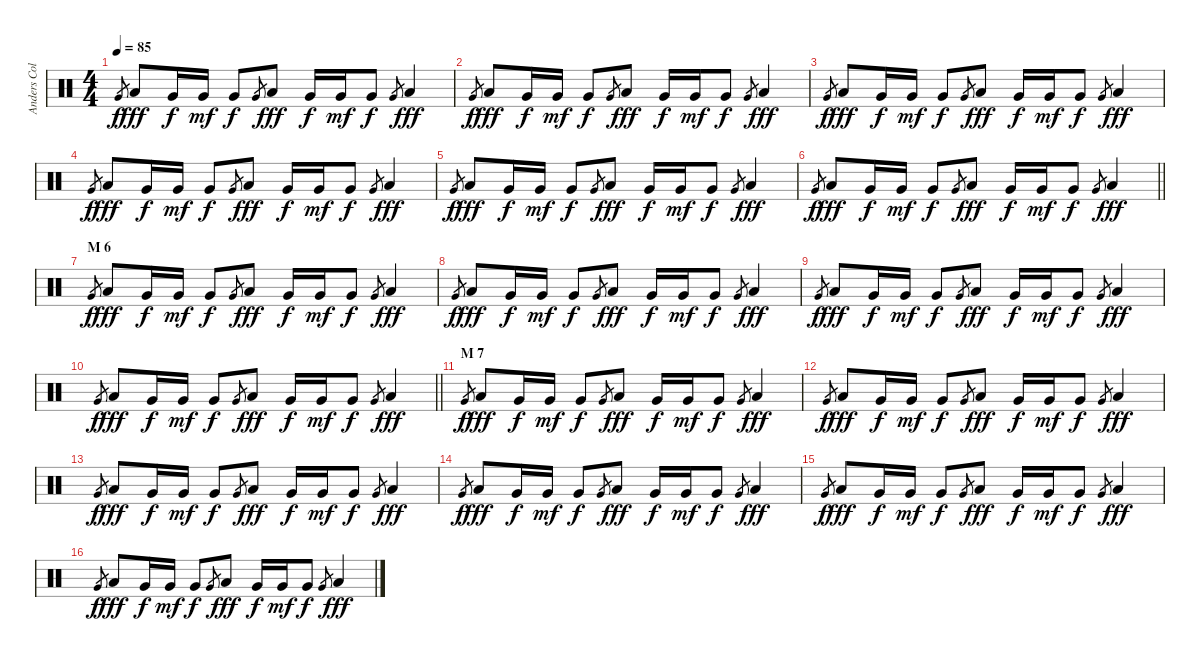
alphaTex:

\track ("Anders Colsefni" "Anders Col") {instrument percussion}
\staff {score}
\articulation defaults
\ts (4 4)
\tempo 85
\clef neutral
\ks c "Very Low Tom (hit)".8{gr dy f} "Low Tom (hit)".8{dy fff} "Very Low Tom (hit)".16{dy f} "Very Low Tom (hit)".16{dy mf} "Very Low Tom (hit)".8{dy f} "Very Low Tom (hit)".8{gr} "Low Tom (hit)".8{dy fff} "Very Low Tom (hit)".16{dy f} "Very Low Tom (hit)".16{dy mf} "Very Low Tom (hit)".8{dy f} "Very Low Tom (hit)".8{gr} "Low Tom (hit)".4{dy fff}
|
"Very Low Tom (hit)".8{gr dy f} "Low Tom (hit)".8{dy fff} "Very Low Tom (hit)".16{dy f} "Very Low Tom (hit)".16{dy mf} "Very Low Tom (hit)".8{dy f} "Very Low Tom (hit)".8{gr} "Low Tom (hit)".8{dy fff} "Very Low Tom (hit)".16{dy f} "Very Low Tom (hit)".16{dy mf} "Very Low Tom (hit)".8{dy f} "Very Low Tom (hit)".8{gr} "Low Tom (hit)".4{dy fff} |
"Very Low Tom (hit)".8{gr dy f} "Low Tom (hit)".8{dy fff} "Very Low Tom (hit)".16{dy f} "Very Low Tom (hit)".16{dy mf} "Very Low Tom (hit)".8{dy f} "Very Low Tom (hit)".8{gr} "Low Tom (hit)".8{dy fff} "Very Low Tom (hit)".16{dy f} "Very Low Tom (hit)".16{dy mf} "Very Low Tom (hit)".8{dy f} "Very Low Tom (hit)".8{gr} "Low Tom (hit)".4{dy fff} |
"Very Low Tom (hit)".8{gr dy f} "Low Tom (hit)".8{dy fff} "Very Low Tom (hit)".16{dy f} "Very Low Tom (hit)".16{dy mf} "Very Low Tom (hit)".8{dy f} "Very Low Tom (hit)".8{gr} "Low Tom (hit)".8{dy fff} "Very Low Tom (hit)".16{dy f} "Very Low Tom (hit)".16{dy mf} "Very Low Tom (hit)".8{dy f} "Very Low Tom (hit)".8{gr} "Low Tom (hit)".4{dy fff} |
"Very Low Tom (hit)".8{gr dy f} "Low Tom (hit)".8{dy fff} "Very Low Tom (hit)".16{dy f} "Very Low Tom (hit)".16{dy mf} "Very Low Tom (hit)".8{dy f} "Very Low Tom (hit)".8{gr} "Low Tom (hit)".8{dy fff} "Very Low Tom (hit)".16{dy f} "Very Low Tom (hit)".16{dy mf} "Very Low Tom (hit)".8{dy f} "Very Low Tom (hit)".8{gr} "Low Tom (hit)".4{dy fff} |
\barLineRight lightlight "Very Low Tom (hit)".8{gr dy f} "Low Tom (hit)".8{dy fff} "Very Low Tom (hit)".16{dy f} "Very Low Tom (hit)".16{dy mf} "Very Low Tom (hit)".8{dy f} "Very Low Tom (hit)".8{gr} "Low Tom (hit)".8{dy fff} "Very Low Tom (hit)".16{dy f} "Very Low Tom (hit)".16{dy mf} "Very Low Tom (hit)".8{dy f} "Very Low Tom (hit)".8{gr} "Low Tom (hit)".4{dy fff}
|
\section ("" "M 6")
"Very Low Tom (hit)".8{gr dy f} "Low Tom (hit)".8{dy fff} "Very Low Tom (hit)".16{dy f} "Very Low Tom (hit)".16{dy mf} "Very Low Tom (hit)".8{dy f} "Very Low Tom (hit)".8{gr} "Low Tom (hit)".8{dy fff} "Very Low Tom (hit)".16{dy f} "Very Low Tom (hit)".16{dy mf} "Very Low Tom (hit)".8{dy f} "Very Low Tom (hit)".8{gr} "Low Tom (hit)".4{dy fff} |
"Very Low Tom (hit)".8{gr dy f} "Low Tom (hit)".8{dy fff} "Very Low Tom (hit)".16{dy f} "Very Low Tom (hit)".16{dy mf} "Very Low Tom (hit)".8{dy f} "Very Low Tom (hit)".8{gr} "Low Tom (hit)".8{dy fff} "Very Low Tom (hit)".16{dy f} "Very Low Tom (hit)".16{dy mf} "Very Low Tom (hit)".8{dy f} "Very Low Tom (hit)".8{gr} "Low Tom (hit)".4{dy fff} |
"Very Low Tom (hit)".8{gr dy f} "Low Tom (hit)".8{dy fff} "Very Low Tom (hit)".16{dy f} "Very Low Tom (hit)".16{dy mf} "Very Low Tom (hit)".8{dy f} "Very Low Tom (hit)".8{gr} "Low Tom (hit)".8{dy fff} "Very Low Tom (hit)".16{dy f} "Very Low Tom (hit)".16{dy mf} "Very Low Tom (hit)".8{dy f} "Very Low Tom (hit)".8{gr} "Low Tom (hit)".4{dy fff} |
\barLineRight lightlight "Very Low Tom (hit)".8{gr dy f} "Low Tom (hit)".8{dy fff} "Very Low Tom (hit)".16{dy f} "Very Low Tom (hit)".16{dy mf} "Very Low Tom (hit)".8{dy f} "Very Low Tom (hit)".8{gr} "Low Tom (hit)".8{dy fff} "Very Low Tom (hit)".16{dy f} "Very Low Tom (hit)".16{dy mf} "Very Low Tom (hit)".8{dy f} "Very Low Tom (hit)".8{gr} "Low Tom (hit)".4{dy fff}
|
\section ("" "M 7")
"Very Low Tom (hit)".8{gr dy f} "Low Tom (hit)".8{dy fff} "Very Low Tom (hit)".16{dy f} "Very Low Tom (hit)".16{dy mf} "Very Low Tom (hit)".8{dy f} "Very Low Tom (hit)".8{gr} "Low Tom (hit)".8{dy fff} "Very Low Tom (hit)".16{dy f} "Very Low Tom (hit)".16{dy mf} "Very Low Tom (hit)".8{dy f} "Very Low Tom (hit)".8{gr} "Low Tom (hit)".4{dy fff} |
"Very Low Tom (hit)".8{gr dy f} "Low Tom (hit)".8{dy fff} "Very Low Tom (hit)".16{dy f} "Very Low Tom (hit)".16{dy mf} "Very Low Tom (hit)".8{dy f} "Very Low Tom (hit)".8{gr} "Low Tom (hit)".8{dy fff} "Very Low Tom (hit)".16{dy f} "Very Low Tom (hit)".16{dy mf} "Very Low Tom (hit)".8{dy f} "Very Low Tom (hit)".8{gr} "Low Tom (hit)".4{dy fff} |
"Very Low Tom (hit)".8{gr dy f} "Low Tom (hit)".8{dy fff} "Very Low Tom (hit)".16{dy f} "Very Low Tom (hit)".16{dy mf} "Very Low Tom (hit)".8{dy f} "Very Low Tom (hit)".8{gr} "Low Tom (hit)".8{dy fff} "Very Low Tom (hit)".16{dy f} "Very Low Tom (hit)".16{dy mf} "Very Low Tom (hit)".8{dy f} "Very Low Tom (hit)".8{gr} "Low Tom (hit)".4{dy fff} |
"Very Low Tom (hit)".8{gr dy f} "Low Tom (hit)".8{dy fff} "Very Low Tom (hit)".16{dy f} "Very Low Tom (hit)".16{dy mf} "Very Low Tom (hit)".8{dy f} "Very Low Tom (hit)".8{gr} "Low Tom (hit)".8{dy fff} "Very Low Tom (hit)".16{dy f} "Very Low Tom (hit)".16{dy mf} "Very Low Tom (hit)".8{dy f} "Very Low Tom (hit)".8{gr} "Low Tom (hit)".4{dy fff} |
"Very Low Tom (hit)".8{gr dy f} "Low Tom (hit)".8{dy fff} "Very Low Tom (hit)".16{dy f} "Very Low Tom (hit)".16{dy mf} "Very Low Tom (hit)".8{dy f} "Very Low Tom (hit)".8{gr} "Low Tom (hit)".8{dy fff} "Very Low Tom (hit)".16{dy f} "Very Low Tom (hit)".16{dy mf} "Very Low Tom (hit)".8{dy f} "Very Low Tom (hit)".8{gr} "Low Tom (hit)".4{dy fff} |
"Very Low Tom (hit)".8{gr dy f} "Low Tom (hit)".8{dy fff} "Very Low Tom (hit)".16{dy f} "Very Low Tom (hit)".16{dy mf} "Very Low Tom (hit)".8{dy f} "Very Low Tom (hit)".8{gr} "Low Tom (hit)".8{dy fff} "Very Low Tom (hit)".16{dy f} "Very Low Tom (hit)".16{dy mf} "Very Low Tom (hit)".8{dy f} "Very Low Tom (hit)".8{gr} "Low Tom (hit)".4{dy fff}
